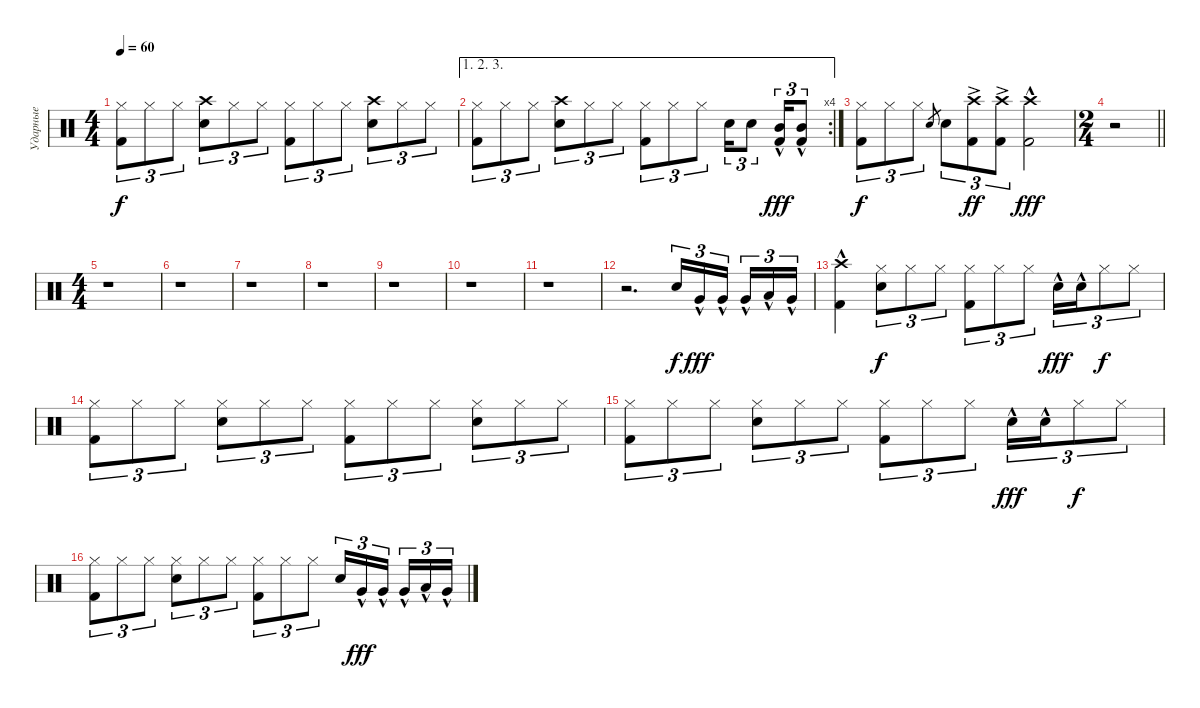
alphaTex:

\track ("Ударные" "Ударные") {instrument percussion}
\staff {score}
\articulation defaults
\ts (4 4)
\tempo 60
\clef neutral
\ks c
("Kick (hit) 2" "Hi-Hat (closed)").8{tu (3 2) dy f} "Hi-Hat (closed)".8{tu (3 2)} "Hi-Hat (closed)".8{tu (3 2)} ("Snare (hit) 2" "Crash high (hit)").8{tu (3 2)} "Hi-Hat (closed)".8{tu (3 2)} "Hi-Hat (closed)".8{tu (3 2)} ("Kick (hit) 2" "Hi-Hat (closed)").8{tu (3 2)} "Hi-Hat (closed)".8{tu (3 2)} "Hi-Hat (closed)".8{tu (3 2)} ("Snare (hit) 2" "Crash high (hit)").8{tu (3 2)} "Hi-Hat (closed)".8{tu (3 2)} "Hi-Hat (closed)".8{tu (3 2)} |
\ae (1 2 3)
\rc 4
("Kick (hit) 2" "Hi-Hat (closed)").8{tu (3 2)} "Hi-Hat (closed)".8{tu (3 2)} "Hi-Hat (closed)".8{tu (3 2)} ("Snare (hit) 2" "Crash high (hit)").8{tu (3 2)} "Hi-Hat (closed)".8{tu (3 2)} "Hi-Hat (closed)".8{tu (3 2)} ("Kick (hit) 2" "Hi-Hat (closed)").8{tu (3 2)} "Hi-Hat (closed)".8{tu (3 2)} "Hi-Hat (closed)".8{tu (3 2)} "Snare (hit) 2".16{tu (3 2)} "Snare (hit) 2".8{tu (3 2)} ("Kick (hit) 2" "Mid Tom (hit)"{hac}).16{tu (3 2) dy fff} ("Kick (hit) 2" "Mid Tom (hit)"{hac}).8{tu (3 2)} |
("Hi-Hat (closed)" "Kick (hit) 2").8{tu (3 2) dy f} "Hi-Hat (closed)".8{tu (3 2)} "Hi-Hat (closed)".8{tu (3 2)} "Snare (hit) 2".8{gr} "Snare (hit) 2".8{tu (3 2)} ("Crash high (hit)"{ac} "Kick (hit) 2").8{tu (3 2) dy ff} ("Crash high (hit)"{ac} "Kick (hit) 2").8{tu (3 2)} ("Crash high (hit)"{hac} "Kick (hit) 2").2{dy fff} |
\ts (2 4)
\barLineRight lightlight
r.2 |
\ts (4 4)
r.1 |
r.1 |
r.1 |
r.1 |
r.1 |
r.1 |
r.1 |
r.2{d} "Snare (hit) 2".16{tu (3 2) dy f} "Very Low Tom (hit)"{hac}.16{tu (3 2) dy fff} "Very Low Tom (hit)"{hac}.16{tu (3 2) beam splitsecondary} "Very Low Tom (hit)"{hac}.16{tu (3 2)} "Low Floor Tom (hit)"{hac}.16{tu (3 2)} "Very Low Tom (hit)"{hac}.16{tu (3 2)} |
("Kick (hit) 2" "Crash high (hit)"{hac}).4 ("Snare (hit) 2" "Hi-Hat (closed)").8{tu (3 2) dy f} "Hi-Hat (closed)".8{tu (3 2)} "Hi-Hat (closed)".8{tu (3 2)} ("Kick (hit) 2" "Hi-Hat (closed)").8{tu (3 2)} "Hi-Hat (closed)".8{tu (3 2)} "Hi-Hat (closed)".8{tu (3 2)} "Snare (hit) 2"{hac}.16{tu (3 2) dy fff} "Snare (hit) 2"{hac}.16{tu (3 2)} "Hi-Hat (closed)".8{tu (3 2) dy f} "Hi-Hat (closed)".8{tu (3 2)} |
("Kick (hit) 2" "Hi-Hat (closed)").8{tu (3 2)} "Hi-Hat (closed)".8{tu (3 2)} "Hi-Hat (closed)".8{tu (3 2)} ("Snare (hit) 2" "Hi-Hat (closed)").8{tu (3 2)} "Hi-Hat (closed)".8{tu (3 2)} "Hi-Hat (closed)".8{tu (3 2)} ("Kick (hit) 2" "Hi-Hat (closed)").8{tu (3 2)} "Hi-Hat (closed)".8{tu (3 2)} "Hi-Hat (closed)".8{tu (3 2)} ("Snare (hit) 2" "Hi-Hat (closed)").8{tu (3 2)} "Hi-Hat (closed)".8{tu (3 2)} "Hi-Hat (closed)".8{tu (3 2)} |
("Kick (hit) 2" "Hi-Hat (closed)").8{tu (3 2)} "Hi-Hat (closed)".8{tu (3 2)} "Hi-Hat (closed)".8{tu (3 2)} ("Snare (hit) 2" "Hi-Hat (closed)").8{tu (3 2)} "Hi-Hat (closed)".8{tu (3 2)} "Hi-Hat (closed)".8{tu (3 2)} ("Kick (hit) 2" "Hi-Hat (closed)").8{tu (3 2)} "Hi-Hat (closed)".8{tu (3 2)} "Hi-Hat (closed)".8{tu (3 2)} "Snare (hit) 2"{hac}.16{tu (3 2) dy fff} "Snare (hit) 2"{hac}.16{tu (3 2)} "Hi-Hat (closed)".8{tu (3 2) dy f} "Hi-Hat (closed)".8{tu (3 2)} |
("Kick (hit) 2" "Hi-Hat (closed)").8{tu (3 2)} "Hi-Hat (closed)".8{tu (3 2)} "Hi-Hat (closed)".8{tu (3 2)} ("Snare (hit) 2" "Hi-Hat (closed)").8{tu (3 2)} "Hi-Hat (closed)".8{tu (3 2)} "Hi-Hat (closed)".8{tu (3 2)} ("Kick (hit) 2" "Hi-Hat (closed)").8{tu (3 2)} "Hi-Hat (closed)".8{tu (3 2)} "Hi-Hat (closed)".8{tu (3 2)} "Snare (hit) 2".16{tu (3 2)} "Very Low Tom (hit)"{hac}.16{tu (3 2) dy fff} "Very Low Tom (hit)"{hac}.16{tu (3 2) beam splitsecondary} "Very Low Tom (hit)"{hac}.16{tu (3 2)} "Low Floor Tom (hit)"{hac}.16{tu (3 2)} "Very Low Tom (hit)"{hac}.16{tu (3 2)}
